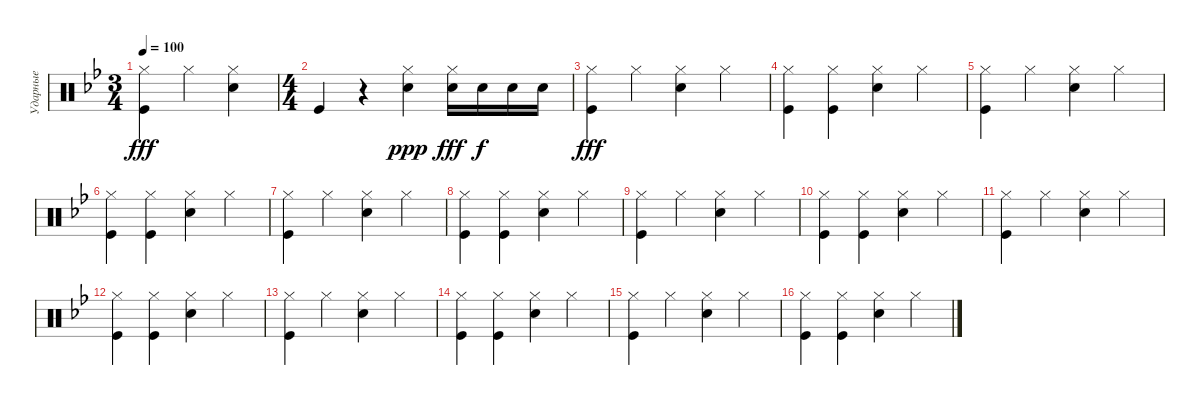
\track ("Ударные" "Ударные") {instrument percussion}
\staff {score}
\articulation defaults
\ts (3 4)
\tempo 100
\clef neutral
\ks gminor
("Hi-Hat (closed)" "Kick (hit)").4{dy fff} "Hi-Hat (closed)".4 ("Hi-Hat (closed)" "Snare (hit) 2").4 |
\ts (4 4)
"Kick (hit)".4 r.4 ("Hi-Hat (closed)" "Snare (hit) 2").4{dy ppp} ("Hi-Hat (closed)" "Snare (hit) 2").16{dy fff} "Snare (hit) 2".16{dy f} "Snare (hit) 2".16 "Snare (hit) 2".16 |
("Hi-Hat (closed)" "Kick (hit)").4{dy fff} "Hi-Hat (closed)".4 ("Hi-Hat (closed)" "Snare (hit) 2").4 "Hi-Hat (closed)".4 |
("Kick (hit)" "Hi-Hat (closed)").4 ("Hi-Hat (closed)" "Kick (hit)").4 ("Hi-Hat (closed)" "Snare (hit) 2").4 "Hi-Hat (closed)".4 |
("Hi-Hat (closed)" "Kick (hit)").4 "Hi-Hat (closed)".4 ("Hi-Hat (closed)" "Snare (hit) 2").4 "Hi-Hat (closed)".4 |
("Kick (hit)" "Hi-Hat (closed)").4 ("Hi-Hat (closed)" "Kick (hit)").4 ("Hi-Hat (closed)" "Snare (hit) 2").4 "Hi-Hat (closed)".4 |
("Hi-Hat (closed)" "Kick (hit)").4 "Hi-Hat (closed)".4 ("Hi-Hat (closed)" "Snare (hit) 2").4 "Hi-Hat (closed)".4 |
("Kick (hit)" "Hi-Hat (closed)").4 ("Hi-Hat (closed)" "Kick (hit)").4 ("Hi-Hat (closed)" "Snare (hit) 2").4 "Hi-Hat (closed)".4 |
("Hi-Hat (closed)" "Kick (hit)").4 "Hi-Hat (closed)".4 ("Hi-Hat (closed)" "Snare (hit) 2").4 "Hi-Hat (closed)".4 |
("Kick (hit)" "Hi-Hat (closed)").4 ("Hi-Hat (closed)" "Kick (hit)").4 ("Hi-Hat (closed)" "Snare (hit) 2").4 "Hi-Hat (closed)".4 |
("Hi-Hat (closed)" "Kick (hit)").4 "Hi-Hat (closed)".4 ("Hi-Hat (closed)" "Snare (hit) 2").4 "Hi-Hat (closed)".4 |
("Kick (hit)" "Hi-Hat (closed)").4 ("Hi-Hat (closed)" "Kick (hit)").4 ("Hi-Hat (closed)" "Snare (hit) 2").4 "Hi-Hat (closed)".4 |
("Hi-Hat (closed)" "Kick (hit)").4 "Hi-Hat (closed)".4 ("Hi-Hat (closed)" "Snare (hit) 2").4 "Hi-Hat (closed)".4 |
("Kick (hit)" "Hi-Hat (closed)").4 ("Hi-Hat (closed)" "Kick (hit)").4 ("Hi-Hat (closed)" "Snare (hit) 2").4 "Hi-Hat (closed)".4 |
("Hi-Hat (closed)" "Kick (hit)").4 "Hi-Hat (closed)".4 ("Hi-Hat (closed)" "Snare (hit) 2").4 "Hi-Hat (closed)".4 |
("Kick (hit)" "Hi-Hat (closed)").4 ("Hi-Hat (closed)" "Kick (hit)").4 ("Hi-Hat (closed)" "Snare (hit) 2").4 "Hi-Hat (closed)".4
